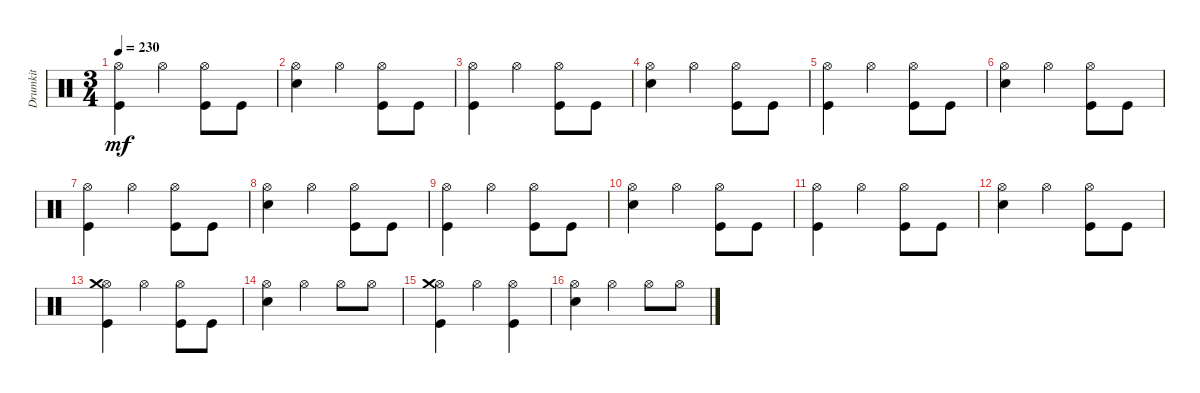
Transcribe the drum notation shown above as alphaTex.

\track ("Drumkit" "Drumkit") {instrument percussion}
\staff {score}
\articulation defaults
\ts (3 4)
\tempo 230
\clef neutral
\ks c
("Kick (hit)" "Hi-Hat (open)").4{dy mf} "Hi-Hat (open)".4 ("Kick (hit)" "Hi-Hat (open)").8 "Kick (hit)".8 |
("Snare (hit) 2" "Hi-Hat (open)").4 "Hi-Hat (open)".4 ("Kick (hit)" "Hi-Hat (open)").8 "Kick (hit)".8 |
("Kick (hit)" "Hi-Hat (open)").4 "Hi-Hat (open)".4 ("Kick (hit)" "Hi-Hat (open)").8 "Kick (hit)".8 |
("Snare (hit) 2" "Hi-Hat (open)").4 "Hi-Hat (open)".4 ("Kick (hit)" "Hi-Hat (open)").8 "Kick (hit)".8 |
("Kick (hit)" "Hi-Hat (open)").4 "Hi-Hat (open)".4 ("Kick (hit)" "Hi-Hat (open)").8 "Kick (hit)".8 |
("Snare (hit) 2" "Hi-Hat (open)").4 "Hi-Hat (open)".4 ("Kick (hit)" "Hi-Hat (open)").8 "Kick (hit)".8 |
("Kick (hit)" "Hi-Hat (open)").4 "Hi-Hat (open)".4 ("Kick (hit)" "Hi-Hat (open)").8 "Kick (hit)".8 |
("Snare (hit) 2" "Hi-Hat (open)").4 "Hi-Hat (open)".4 ("Kick (hit)" "Hi-Hat (open)").8 "Kick (hit)".8 |
("Kick (hit)" "Hi-Hat (open)").4 "Hi-Hat (open)".4 ("Kick (hit)" "Hi-Hat (open)").8 "Kick (hit)".8 |
("Snare (hit) 2" "Hi-Hat (open)").4 "Hi-Hat (open)".4 ("Kick (hit)" "Hi-Hat (open)").8 "Kick (hit)".8 |
("Kick (hit)" "Hi-Hat (open)").4 "Hi-Hat (open)".4 ("Kick (hit)" "Hi-Hat (open)").8 "Kick (hit)".8 |
("Snare (hit) 2" "Hi-Hat (open)").4 "Hi-Hat (open)".4 ("Kick (hit)" "Hi-Hat (open)").8 "Kick (hit)".8 |
("Kick (hit)" "Hi-Hat (open)" "Crash medium (hit)").4 "Hi-Hat (open)".4 ("Kick (hit)" "Hi-Hat (open)").8 "Kick (hit)".8 |
("Hi-Hat (open)" "Snare (hit) 2").4 "Hi-Hat (open)".4 "Hi-Hat (open)".8 "Hi-Hat (open)".8 |
("Kick (hit)" "Hi-Hat (open)" "Crash medium (hit)").4 "Hi-Hat (open)".4 ("Kick (hit)" "Hi-Hat (open)").4 |
("Hi-Hat (open)" "Snare (hit) 2").4 "Hi-Hat (open)".4 "Hi-Hat (open)".8 "Hi-Hat (open)".8
